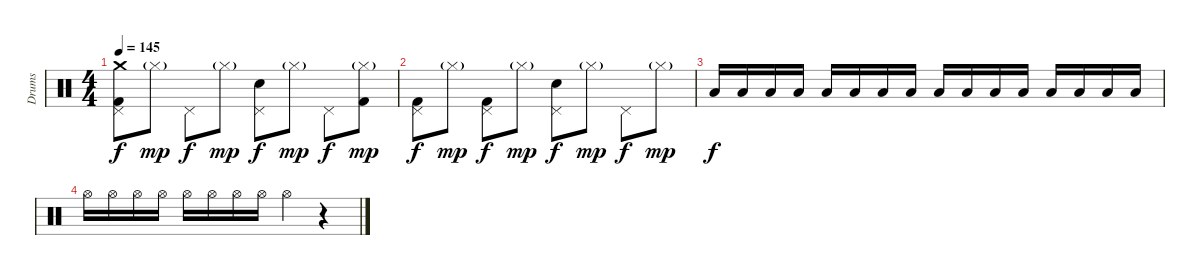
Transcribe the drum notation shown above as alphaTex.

\track ("Drums" "Drums") {instrument percussion}
\staff {score}
\articulation defaults
\ts (4 4)
\tempo 145
\clef neutral
\ks c
("Pedal Hi-Hat (hit)" "Crash medium (hit)" "Kick (hit) 2").8{dy f} "Hi-Hat (closed)"{g}.8{dy mp} "Pedal Hi-Hat (hit)".8{dy f} "Hi-Hat (closed)"{g}.8{dy mp} ("Pedal Hi-Hat (hit)" "Snare (hit) 2").8{dy f} "Hi-Hat (closed)"{g}.8{dy mp} "Pedal Hi-Hat (hit)".8{dy f} ("Hi-Hat (closed)"{g} "Kick (hit) 2").8{dy mp} |
("Pedal Hi-Hat (hit)" "Kick (hit) 2").8{dy f} "Hi-Hat (closed)"{g}.8{dy mp} ("Pedal Hi-Hat (hit)" "Kick (hit) 2").8{dy f} "Hi-Hat (closed)"{g}.8{dy mp} ("Pedal Hi-Hat (hit)" "Snare (hit) 2").8{dy f} "Hi-Hat (closed)"{g}.8{dy mp} "Pedal Hi-Hat (hit)".8{dy f} "Hi-Hat (closed)"{g}.8{dy mp} |
"Low Tom (hit)".16{dy f} "Low Tom (hit)".16 "Low Tom (hit)".16 "Low Tom (hit)".16 "Low Tom (hit)".16 "Low Tom (hit)".16 "Low Tom (hit)".16 "Low Tom (hit)".16 "Low Tom (hit)".16 "Low Tom (hit)".16 "Low Tom (hit)".16 "Low Tom (hit)".16 "Low Tom (hit)".16 "Low Tom (hit)".16 "Low Tom (hit)".16 "Low Tom (hit)".16 |
"Hi-Hat (open)".16 "Hi-Hat (open)".16 "Hi-Hat (open)".16 "Hi-Hat (open)".16 "Hi-Hat (open)".16 "Hi-Hat (open)".16 "Hi-Hat (open)".16 "Hi-Hat (open)".16 "Hi-Hat (open)".4 r.4
